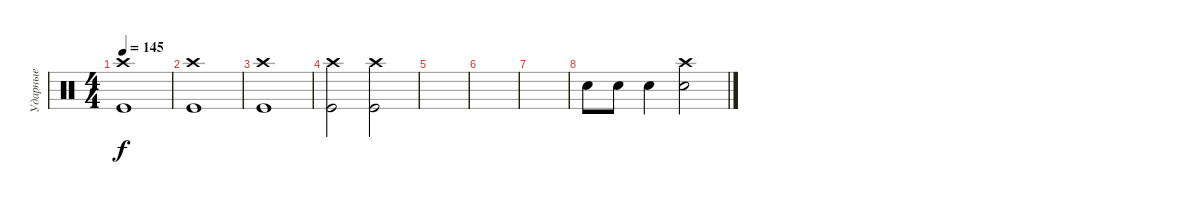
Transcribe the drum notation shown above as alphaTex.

\track ("Ударные" "Ударные") {instrument percussion}
\staff {score}
\articulation defaults
\ts (4 4)
\tempo 145
\clef neutral
\ks c
("Kick (hit)" "Crash high (hit)").1{dy f} |
("Kick (hit)" "Crash high (hit)").1 |
("Kick (hit)" "Crash high (hit)").1 |
("Kick (hit)" "Crash high (hit)").2 ("Kick (hit)" "Crash high (hit)").2 |
|
|
|
"Snare (hit) 2".8 "Snare (hit) 2".8 "Snare (hit) 2".4 ("Snare (hit) 2" "Crash high (hit)").2
